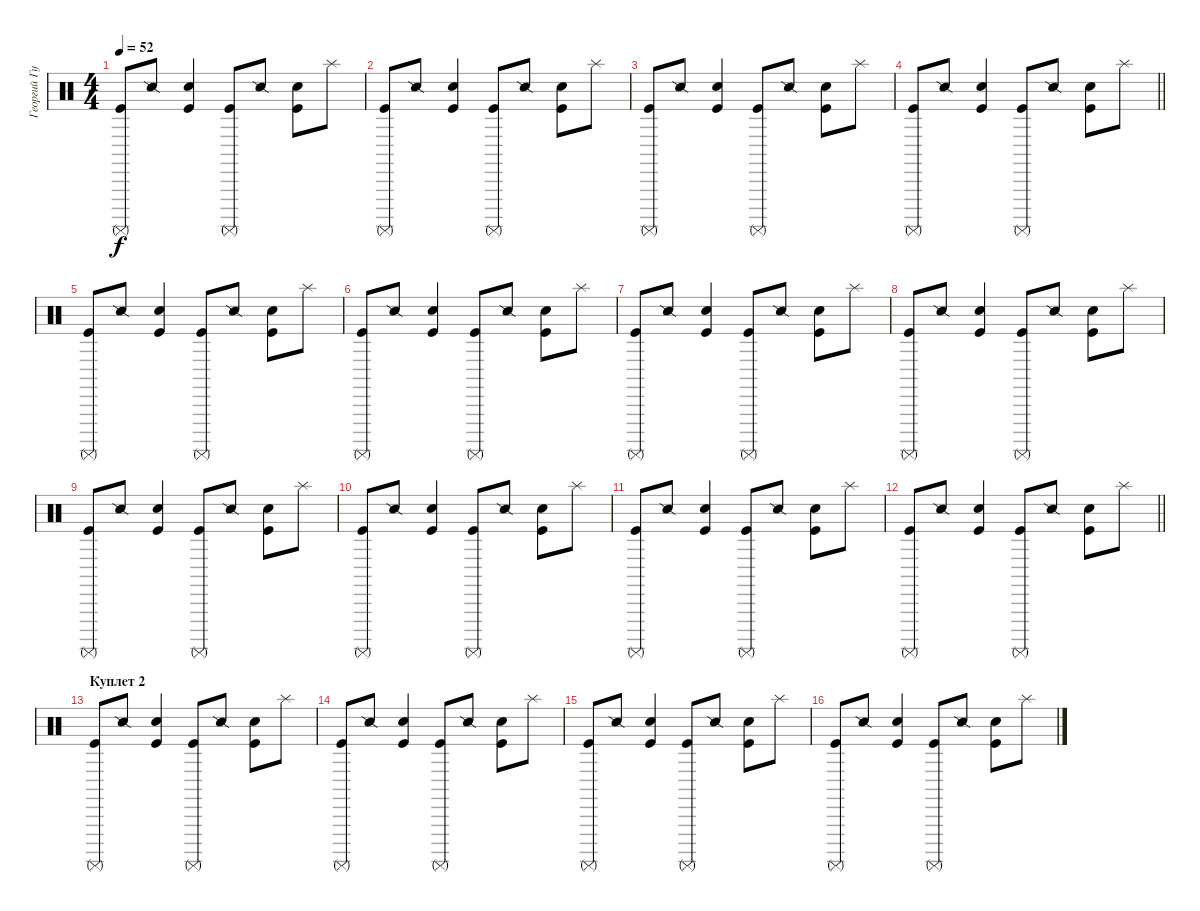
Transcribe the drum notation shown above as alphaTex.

\track ("Георгий Гурьянов" "Георгий Гу") {instrument percussion}
\staff {score}
\articulation defaults
\ts (4 4)
\tempo 52
\clef neutral
\ks c
("Kick (hit)" "Surdo (mute)").8{dy f} "Snare (side stick) 2".8 ("Snare (hit) 2" "Kick (hit)").4 ("Kick (hit)" "Surdo (mute)").8 "Snare (side stick) 2".8 ("Snare (hit) 2" "Kick (hit)").8 "Splash (hit)".8 |
("Kick (hit)" "Surdo (mute)").8 "Snare (side stick) 2".8 ("Snare (hit) 2" "Kick (hit)").4 ("Kick (hit)" "Surdo (mute)").8 "Snare (side stick) 2".8 ("Snare (hit) 2" "Kick (hit)").8 "Splash (hit)".8 |
("Kick (hit)" "Surdo (mute)").8 "Snare (side stick) 2".8 ("Snare (hit) 2" "Kick (hit)").4 ("Kick (hit)" "Surdo (mute)").8 "Snare (side stick) 2".8 ("Snare (hit) 2" "Kick (hit)").8 "Splash (hit)".8 |
\barLineRight lightlight
("Kick (hit)" "Surdo (mute)").8 "Snare (side stick) 2".8 ("Snare (hit) 2" "Kick (hit)").4 ("Kick (hit)" "Surdo (mute)").8 "Snare (side stick) 2".8 ("Snare (hit) 2" "Kick (hit)").8 "Splash (hit)".8 |
\section ("" "")
("Kick (hit)" "Surdo (mute)").8 "Snare (side stick) 2".8 ("Snare (hit) 2" "Kick (hit)").4 ("Kick (hit)" "Surdo (mute)").8 "Snare (side stick) 2".8 ("Snare (hit) 2" "Kick (hit)").8 "Splash (hit)".8 |
("Kick (hit)" "Surdo (mute)").8 "Snare (side stick) 2".8 ("Snare (hit) 2" "Kick (hit)").4 ("Kick (hit)" "Surdo (mute)").8 "Snare (side stick) 2".8 ("Snare (hit) 2" "Kick (hit)").8 "Splash (hit)".8 |
("Kick (hit)" "Surdo (mute)").8 "Snare (side stick) 2".8 ("Snare (hit) 2" "Kick (hit)").4 ("Kick (hit)" "Surdo (mute)").8 "Snare (side stick) 2".8 ("Snare (hit) 2" "Kick (hit)").8 "Splash (hit)".8 |
("Kick (hit)" "Surdo (mute)").8 "Snare (side stick) 2".8 ("Snare (hit) 2" "Kick (hit)").4 ("Kick (hit)" "Surdo (mute)").8 "Snare (side stick) 2".8 ("Snare (hit) 2" "Kick (hit)").8 "Splash (hit)".8 |
("Kick (hit)" "Surdo (mute)").8 "Snare (side stick) 2".8 ("Snare (hit) 2" "Kick (hit)").4 ("Kick (hit)" "Surdo (mute)").8 "Snare (side stick) 2".8 ("Snare (hit) 2" "Kick (hit)").8 "Splash (hit)".8 |
("Kick (hit)" "Surdo (mute)").8 "Snare (side stick) 2".8 ("Snare (hit) 2" "Kick (hit)").4 ("Kick (hit)" "Surdo (mute)").8 "Snare (side stick) 2".8 ("Snare (hit) 2" "Kick (hit)").8 "Splash (hit)".8 |
("Kick (hit)" "Surdo (mute)").8 "Snare (side stick) 2".8 ("Snare (hit) 2" "Kick (hit)").4 ("Kick (hit)" "Surdo (mute)").8 "Snare (side stick) 2".8 ("Snare (hit) 2" "Kick (hit)").8 "Splash (hit)".8 |
\barLineRight lightlight
("Kick (hit)" "Surdo (mute)").8 "Snare (side stick) 2".8 ("Snare (hit) 2" "Kick (hit)").4 ("Kick (hit)" "Surdo (mute)").8 "Snare (side stick) 2".8 ("Snare (hit) 2" "Kick (hit)").8 "Splash (hit)".8 |
\section ("" "Куплет 2")
("Kick (hit)" "Surdo (mute)").8 "Snare (side stick) 2".8 ("Snare (hit) 2" "Kick (hit)").4 ("Kick (hit)" "Surdo (mute)").8 "Snare (side stick) 2".8 ("Snare (hit) 2" "Kick (hit)").8 "Splash (hit)".8 |
("Kick (hit)" "Surdo (mute)").8 "Snare (side stick) 2".8 ("Snare (hit) 2" "Kick (hit)").4 ("Kick (hit)" "Surdo (mute)").8 "Snare (side stick) 2".8 ("Snare (hit) 2" "Kick (hit)").8 "Splash (hit)".8 |
("Kick (hit)" "Surdo (mute)").8 "Snare (side stick) 2".8 ("Snare (hit) 2" "Kick (hit)").4 ("Kick (hit)" "Surdo (mute)").8 "Snare (side stick) 2".8 ("Snare (hit) 2" "Kick (hit)").8 "Splash (hit)".8 |
("Kick (hit)" "Surdo (mute)").8 "Snare (side stick) 2".8 ("Snare (hit) 2" "Kick (hit)").4 ("Kick (hit)" "Surdo (mute)").8 "Snare (side stick) 2".8 ("Snare (hit) 2" "Kick (hit)").8 "Splash (hit)".8
